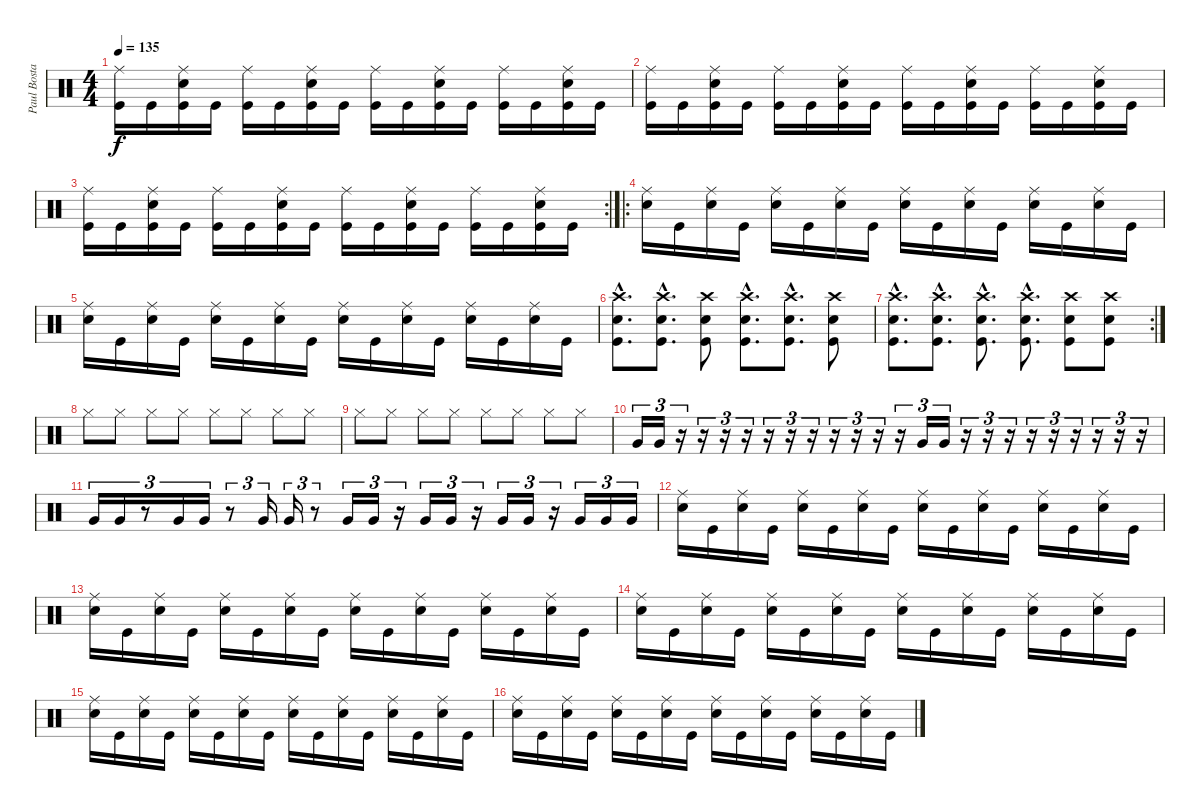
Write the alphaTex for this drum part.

\track ("Paul Bostaph" "Paul Bosta") {instrument percussion}
\staff {score}
\articulation defaults
\ts (4 4)
\tempo 135
\clef neutral
\ks c
("Ride (middle)" "Kick (hit)").16{dy f} "Kick (hit)".16 ("Ride (middle)" "Snare (hit) 2" "Kick (hit)").16 "Kick (hit)".16 ("Ride (middle)" "Kick (hit)").16 "Kick (hit)".16 ("Ride (middle)" "Snare (hit) 2" "Kick (hit)").16 "Kick (hit)".16 ("Ride (middle)" "Kick (hit)").16 "Kick (hit)".16 ("Ride (middle)" "Snare (hit) 2" "Kick (hit)").16 "Kick (hit)".16 ("Ride (middle)" "Kick (hit)").16 "Kick (hit)".16 ("Ride (middle)" "Snare (hit) 2" "Kick (hit)").16 "Kick (hit)".16 |
("Ride (middle)" "Kick (hit)").16 "Kick (hit)".16 ("Ride (middle)" "Snare (hit) 2" "Kick (hit)").16 "Kick (hit)".16 ("Ride (middle)" "Kick (hit)").16 "Kick (hit)".16 ("Ride (middle)" "Snare (hit) 2" "Kick (hit)").16 "Kick (hit)".16 ("Ride (middle)" "Kick (hit)").16 "Kick (hit)".16 ("Ride (middle)" "Snare (hit) 2" "Kick (hit)").16 "Kick (hit)".16 ("Ride (middle)" "Kick (hit)").16 "Kick (hit)".16 ("Ride (middle)" "Snare (hit) 2" "Kick (hit)").16 "Kick (hit)".16 |
\rc 2
("Ride (middle)" "Kick (hit)").16 "Kick (hit)".16 ("Ride (middle)" "Snare (hit) 2" "Kick (hit)").16 "Kick (hit)".16 ("Ride (middle)" "Kick (hit)").16 "Kick (hit)".16 ("Ride (middle)" "Snare (hit) 2" "Kick (hit)").16 "Kick (hit)".16 ("Ride (middle)" "Kick (hit)").16 "Kick (hit)".16 ("Ride (middle)" "Snare (hit) 2" "Kick (hit)").16 "Kick (hit)".16 ("Ride (middle)" "Kick (hit)").16 "Kick (hit)".16 ("Ride (middle)" "Snare (hit) 2" "Kick (hit)").16 "Kick (hit)".16 |
\ro
("Ride (middle)" "Snare (hit) 2").16 "Kick (hit)".16 ("Ride (middle)" "Snare (hit) 2").16 "Kick (hit)".16 ("Ride (middle)" "Snare (hit) 2").16 "Kick (hit)".16 ("Ride (middle)" "Snare (hit) 2").16 "Kick (hit)".16 ("Ride (middle)" "Snare (hit) 2").16 "Kick (hit)".16 ("Ride (middle)" "Snare (hit) 2").16 "Kick (hit)".16 ("Ride (middle)" "Snare (hit) 2").16 "Kick (hit)".16 ("Ride (middle)" "Snare (hit) 2").16 "Kick (hit)".16 |
("Ride (middle)" "Snare (hit) 2").16 "Kick (hit)".16 ("Ride (middle)" "Snare (hit) 2").16 "Kick (hit)".16 ("Ride (middle)" "Snare (hit) 2").16 "Kick (hit)".16 ("Ride (middle)" "Snare (hit) 2").16 "Kick (hit)".16 ("Ride (middle)" "Snare (hit) 2").16 "Kick (hit)".16 ("Ride (middle)" "Snare (hit) 2").16 "Kick (hit)".16 ("Ride (middle)" "Snare (hit) 2").16 "Kick (hit)".16 ("Ride (middle)" "Snare (hit) 2").16 "Kick (hit)".16 |
("Kick (hit)"{hac} "Snare (hit) 2"{hac} "Crash high (hit)"{hac}).8{d} ("Snare (hit) 2"{hac} "Kick (hit)"{hac} "Crash high (hit)"{hac}).8{d} ("Snare (hit) 2" "Crash high (hit)" "Kick (hit)").8 ("Snare (hit) 2"{hac} "Crash high (hit)"{hac} "Kick (hit)"{hac}).8{d} ("Snare (hit) 2"{hac} "Crash high (hit)"{hac} "Kick (hit)"{hac}).8{d} ("Snare (hit) 2" "Crash high (hit)" "Kick (hit)").8 |
\rc 2
("Kick (hit)"{hac} "Snare (hit) 2"{hac} "Crash high (hit)"{hac}).8{d} ("Snare (hit) 2"{hac} "Kick (hit)"{hac} "Crash high (hit)"{hac}).8{d} ("Snare (hit) 2"{hac} "Crash high (hit)"{hac} "Kick (hit)"{hac}).8{d} ("Snare (hit) 2"{hac} "Crash high (hit)"{hac} "Kick (hit)"{hac}).8{d} ("Snare (hit) 2" "Crash high (hit)" "Kick (hit)").8 ("Snare (hit) 2" "Crash high (hit)" "Kick (hit)").8 |
"Hi-Hat (closed)".8 "Hi-Hat (closed)".8 "Hi-Hat (closed)".8 "Hi-Hat (closed)".8 "Hi-Hat (closed)".8 "Hi-Hat (closed)".8 "Hi-Hat (closed)".8 "Hi-Hat (closed)".8 |
"Hi-Hat (closed)".8 "Hi-Hat (closed)".8 "Hi-Hat (closed)".8 "Hi-Hat (closed)".8 "Hi-Hat (closed)".8 "Hi-Hat (closed)".8 "Hi-Hat (closed)".8 "Hi-Hat (closed)".8 |
"Very Low Tom (hit)".16{tu (3 2)} "Very Low Tom (hit)".16{tu (3 2)} r.16{tu (3 2)} r.16{tu (3 2)} r.16{tu (3 2)} r.16{tu (3 2)} r.16{tu (3 2)} r.16{tu (3 2)} r.16{tu (3 2)} r.16{tu (3 2)} r.16{tu (3 2)} r.16{tu (3 2)} r.16{tu (3 2)} "Very Low Tom (hit)".16{tu (3 2)} "Very Low Tom (hit)".16{tu (3 2)} r.16{tu (3 2)} r.16{tu (3 2)} r.16{tu (3 2)} r.16{tu (3 2)} r.16{tu (3 2)} r.16{tu (3 2)} r.16{tu (3 2)} r.16{tu (3 2)} r.16{tu (3 2)} |
"Very Low Tom (hit)".16{tu (3 2)} "Very Low Tom (hit)".16{tu (3 2)} r.8{tu (3 2)} "Very Low Tom (hit)".16{tu (3 2)} "Very Low Tom (hit)".16{tu (3 2)} r.8{tu (3 2)} "Very Low Tom (hit)".16{tu (3 2)} "Very Low Tom (hit)".16{tu (3 2)} r.8{tu (3 2)} "Very Low Tom (hit)".16{tu (3 2)} "Very Low Tom (hit)".16{tu (3 2)} r.16{tu (3 2)} "Very Low Tom (hit)".16{tu (3 2)} "Very Low Tom (hit)".16{tu (3 2)} r.16{tu (3 2)} "Very Low Tom (hit)".16{tu (3 2)} "Very Low Tom (hit)".16{tu (3 2)} r.16{tu (3 2)} "Very Low Tom (hit)".16{tu (3 2)} "Very Low Tom (hit)".16{tu (3 2)} "Very Low Tom (hit)".16{tu (3 2)} |
("Ride (middle)" "Snare (hit) 2").16 "Kick (hit)".16 ("Ride (middle)" "Snare (hit) 2").16 "Kick (hit)".16 ("Ride (middle)" "Snare (hit) 2").16 "Kick (hit)".16 ("Ride (middle)" "Snare (hit) 2").16 "Kick (hit)".16 ("Ride (middle)" "Snare (hit) 2").16 "Kick (hit)".16 ("Ride (middle)" "Snare (hit) 2").16 "Kick (hit)".16 ("Ride (middle)" "Snare (hit) 2").16 "Kick (hit)".16 ("Ride (middle)" "Snare (hit) 2").16 "Kick (hit)".16 |
("Ride (middle)" "Snare (hit) 2").16 "Kick (hit)".16 ("Ride (middle)" "Snare (hit) 2").16 "Kick (hit)".16 ("Ride (middle)" "Snare (hit) 2").16 "Kick (hit)".16 ("Ride (middle)" "Snare (hit) 2").16 "Kick (hit)".16 ("Ride (middle)" "Snare (hit) 2").16 "Kick (hit)".16 ("Ride (middle)" "Snare (hit) 2").16 "Kick (hit)".16 ("Ride (middle)" "Snare (hit) 2").16 "Kick (hit)".16 ("Ride (middle)" "Snare (hit) 2").16 "Kick (hit)".16 |
("Ride (middle)" "Snare (hit) 2").16 "Kick (hit)".16 ("Ride (middle)" "Snare (hit) 2").16 "Kick (hit)".16 ("Ride (middle)" "Snare (hit) 2").16 "Kick (hit)".16 ("Ride (middle)" "Snare (hit) 2").16 "Kick (hit)".16 ("Ride (middle)" "Snare (hit) 2").16 "Kick (hit)".16 ("Ride (middle)" "Snare (hit) 2").16 "Kick (hit)".16 ("Ride (middle)" "Snare (hit) 2").16 "Kick (hit)".16 ("Ride (middle)" "Snare (hit) 2").16 "Kick (hit)".16 |
("Ride (middle)" "Snare (hit) 2").16 "Kick (hit)".16 ("Ride (middle)" "Snare (hit) 2").16 "Kick (hit)".16 ("Ride (middle)" "Snare (hit) 2").16 "Kick (hit)".16 ("Ride (middle)" "Snare (hit) 2").16 "Kick (hit)".16 ("Ride (middle)" "Snare (hit) 2").16 "Kick (hit)".16 ("Ride (middle)" "Snare (hit) 2").16 "Kick (hit)".16 ("Ride (middle)" "Snare (hit) 2").16 "Kick (hit)".16 ("Ride (middle)" "Snare (hit) 2").16 "Kick (hit)".16 |
("Ride (middle)" "Snare (hit) 2").16 "Kick (hit)".16 ("Ride (middle)" "Snare (hit) 2").16 "Kick (hit)".16 ("Ride (middle)" "Snare (hit) 2").16 "Kick (hit)".16 ("Ride (middle)" "Snare (hit) 2").16 "Kick (hit)".16 ("Ride (middle)" "Snare (hit) 2").16 "Kick (hit)".16 ("Ride (middle)" "Snare (hit) 2").16 "Kick (hit)".16 ("Ride (middle)" "Snare (hit) 2").16 "Kick (hit)".16 ("Ride (middle)" "Snare (hit) 2").16 "Kick (hit)".16
